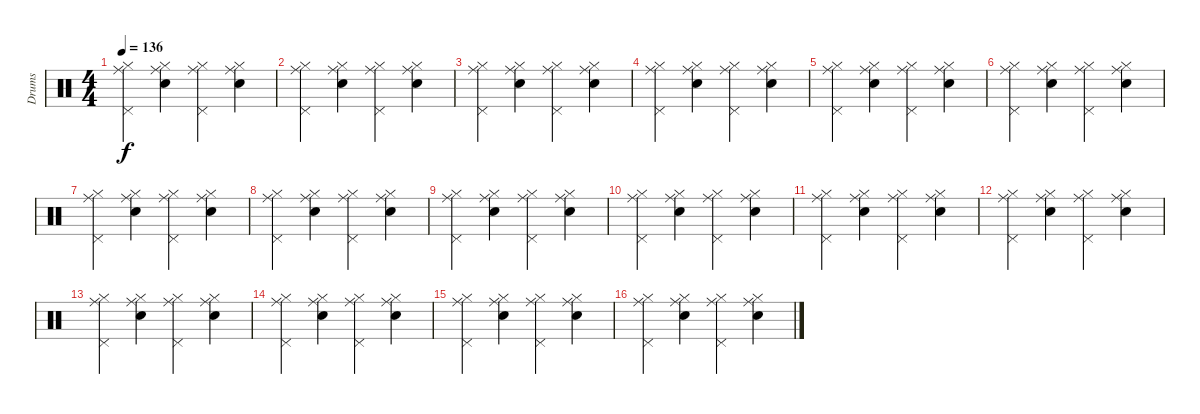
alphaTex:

\track ("Drums" "Drums") {instrument percussion}
\staff {score}
\articulation defaults
\ts (4 4)
\tempo 136
\clef neutral
\ks c
("Hi-Hat (closed)" "Ride (middle)" "Pedal Hi-Hat (hit)").4{dy f} ("Hi-Hat (closed)" "Ride (middle)" "Snare (hit) 2").4 ("Hi-Hat (closed)" "Ride (middle)" "Pedal Hi-Hat (hit)").4 ("Hi-Hat (closed)" "Ride (middle)" "Snare (hit) 2").4 |
("Hi-Hat (closed)" "Ride (middle)" "Pedal Hi-Hat (hit)").4 ("Hi-Hat (closed)" "Ride (middle)" "Snare (hit) 2").4 ("Hi-Hat (closed)" "Ride (middle)" "Pedal Hi-Hat (hit)").4 ("Hi-Hat (closed)" "Ride (middle)" "Snare (hit) 2").4 |
("Hi-Hat (closed)" "Ride (middle)" "Pedal Hi-Hat (hit)").4 ("Hi-Hat (closed)" "Ride (middle)" "Snare (hit) 2").4 ("Hi-Hat (closed)" "Ride (middle)" "Pedal Hi-Hat (hit)").4 ("Hi-Hat (closed)" "Ride (middle)" "Snare (hit) 2").4 |
("Hi-Hat (closed)" "Ride (middle)" "Pedal Hi-Hat (hit)").4 ("Hi-Hat (closed)" "Ride (middle)" "Snare (hit) 2").4 ("Hi-Hat (closed)" "Ride (middle)" "Pedal Hi-Hat (hit)").4 ("Hi-Hat (closed)" "Ride (middle)" "Snare (hit) 2").4 |
("Hi-Hat (closed)" "Ride (middle)" "Pedal Hi-Hat (hit)").4 ("Hi-Hat (closed)" "Ride (middle)" "Snare (hit) 2").4 ("Hi-Hat (closed)" "Ride (middle)" "Pedal Hi-Hat (hit)").4 ("Hi-Hat (closed)" "Ride (middle)" "Snare (hit) 2").4 |
("Hi-Hat (closed)" "Ride (middle)" "Pedal Hi-Hat (hit)").4 ("Hi-Hat (closed)" "Ride (middle)" "Snare (hit) 2").4 ("Hi-Hat (closed)" "Ride (middle)" "Pedal Hi-Hat (hit)").4 ("Hi-Hat (closed)" "Ride (middle)" "Snare (hit) 2").4 |
("Hi-Hat (closed)" "Ride (middle)" "Pedal Hi-Hat (hit)").4 ("Hi-Hat (closed)" "Ride (middle)" "Snare (hit) 2").4 ("Hi-Hat (closed)" "Ride (middle)" "Pedal Hi-Hat (hit)").4 ("Hi-Hat (closed)" "Ride (middle)" "Snare (hit) 2").4 |
("Hi-Hat (closed)" "Ride (middle)" "Pedal Hi-Hat (hit)").4 ("Hi-Hat (closed)" "Ride (middle)" "Snare (hit) 2").4 ("Hi-Hat (closed)" "Ride (middle)" "Pedal Hi-Hat (hit)").4 ("Hi-Hat (closed)" "Ride (middle)" "Snare (hit) 2").4 |
("Hi-Hat (closed)" "Ride (middle)" "Pedal Hi-Hat (hit)").4 ("Hi-Hat (closed)" "Ride (middle)" "Snare (hit) 2").4 ("Hi-Hat (closed)" "Ride (middle)" "Pedal Hi-Hat (hit)").4 ("Hi-Hat (closed)" "Ride (middle)" "Snare (hit) 2").4 |
("Hi-Hat (closed)" "Ride (middle)" "Pedal Hi-Hat (hit)").4 ("Hi-Hat (closed)" "Ride (middle)" "Snare (hit) 2").4 ("Hi-Hat (closed)" "Ride (middle)" "Pedal Hi-Hat (hit)").4 ("Hi-Hat (closed)" "Ride (middle)" "Snare (hit) 2").4 |
("Hi-Hat (closed)" "Ride (middle)" "Pedal Hi-Hat (hit)").4 ("Hi-Hat (closed)" "Ride (middle)" "Snare (hit) 2").4 ("Hi-Hat (closed)" "Ride (middle)" "Pedal Hi-Hat (hit)").4 ("Hi-Hat (closed)" "Ride (middle)" "Snare (hit) 2").4 |
("Hi-Hat (closed)" "Ride (middle)" "Pedal Hi-Hat (hit)").4 ("Hi-Hat (closed)" "Ride (middle)" "Snare (hit) 2").4 ("Hi-Hat (closed)" "Ride (middle)" "Pedal Hi-Hat (hit)").4 ("Hi-Hat (closed)" "Ride (middle)" "Snare (hit) 2").4 |
("Hi-Hat (closed)" "Ride (middle)" "Pedal Hi-Hat (hit)").4 ("Hi-Hat (closed)" "Ride (middle)" "Snare (hit) 2").4 ("Hi-Hat (closed)" "Ride (middle)" "Pedal Hi-Hat (hit)").4 ("Hi-Hat (closed)" "Ride (middle)" "Snare (hit) 2").4 |
("Hi-Hat (closed)" "Ride (middle)" "Pedal Hi-Hat (hit)").4 ("Hi-Hat (closed)" "Ride (middle)" "Snare (hit) 2").4 ("Hi-Hat (closed)" "Ride (middle)" "Pedal Hi-Hat (hit)").4 ("Hi-Hat (closed)" "Ride (middle)" "Snare (hit) 2").4 |
("Hi-Hat (closed)" "Ride (middle)" "Pedal Hi-Hat (hit)").4 ("Hi-Hat (closed)" "Ride (middle)" "Snare (hit) 2").4 ("Hi-Hat (closed)" "Ride (middle)" "Pedal Hi-Hat (hit)").4 ("Hi-Hat (closed)" "Ride (middle)" "Snare (hit) 2").4 |
("Hi-Hat (closed)" "Ride (middle)" "Pedal Hi-Hat (hit)").4 ("Hi-Hat (closed)" "Ride (middle)" "Snare (hit) 2").4 ("Hi-Hat (closed)" "Ride (middle)" "Pedal Hi-Hat (hit)").4 ("Hi-Hat (closed)" "Ride (middle)" "Snare (hit) 2").4
